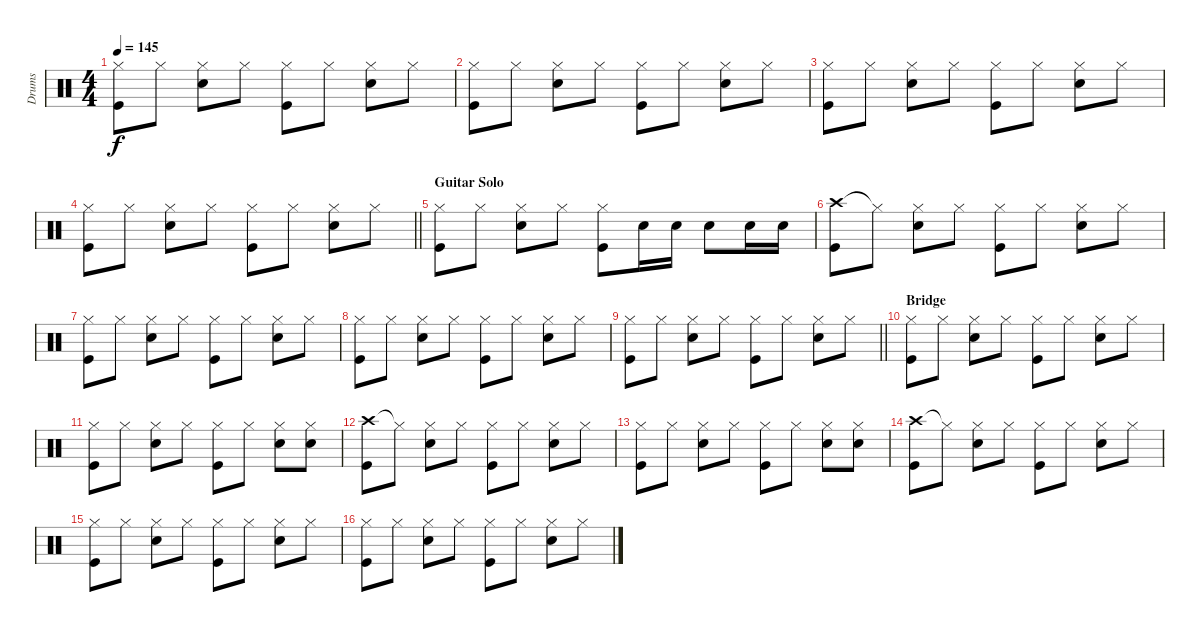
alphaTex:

\track ("Drums" "Drums") {instrument percussion}
\staff {score}
\articulation defaults
\ts (4 4)
\tempo 145
\clef neutral
\ks c
("Hi-Hat (closed)" "Kick (hit)").8{dy f} "Hi-Hat (closed)".8 ("Hi-Hat (closed)" "Electric Snare (hit)").8 "Hi-Hat (closed)".8 ("Hi-Hat (closed)" "Kick (hit)").8 "Hi-Hat (closed)".8 ("Hi-Hat (closed)" "Electric Snare (hit)").8 "Hi-Hat (closed)".8 |
("Hi-Hat (closed)" "Kick (hit)").8 "Hi-Hat (closed)".8 ("Hi-Hat (closed)" "Electric Snare (hit)").8 "Hi-Hat (closed)".8 ("Hi-Hat (closed)" "Kick (hit)").8 "Hi-Hat (closed)".8 ("Hi-Hat (closed)" "Electric Snare (hit)").8 "Hi-Hat (closed)".8 |
("Hi-Hat (closed)" "Kick (hit)").8 "Hi-Hat (closed)".8 ("Hi-Hat (closed)" "Electric Snare (hit)").8 "Hi-Hat (closed)".8 ("Hi-Hat (closed)" "Kick (hit)").8 "Hi-Hat (closed)".8 ("Hi-Hat (closed)" "Electric Snare (hit)").8 "Hi-Hat (closed)".8 |
\barLineRight lightlight
("Hi-Hat (closed)" "Kick (hit)").8 "Hi-Hat (closed)".8 ("Hi-Hat (closed)" "Electric Snare (hit)").8 "Hi-Hat (closed)".8 ("Hi-Hat (closed)" "Kick (hit)").8 "Hi-Hat (closed)".8 ("Hi-Hat (closed)" "Electric Snare (hit)").8 "Hi-Hat (closed)".8 |
\section ("" "Guitar Solo")
("Hi-Hat (closed)" "Kick (hit)").8 "Hi-Hat (closed)".8 ("Hi-Hat (closed)" "Electric Snare (hit)").8 "Hi-Hat (closed)".8 ("Hi-Hat (closed)" "Kick (hit)").8 "Electric Snare (hit)".16 "Electric Snare (hit)".16 "Electric Snare (hit)".8 "Electric Snare (hit)".16 "Electric Snare (hit)".16 |
("Crash high (hit)" "Kick (hit)").8 "Hi-Hat (closed)"{t}.8 ("Hi-Hat (closed)" "Electric Snare (hit)").8 "Hi-Hat (closed)".8 ("Hi-Hat (closed)" "Kick (hit)").8 "Hi-Hat (closed)".8 ("Hi-Hat (closed)" "Electric Snare (hit)").8 "Hi-Hat (closed)".8 |
("Hi-Hat (closed)" "Kick (hit)").8 "Hi-Hat (closed)".8 ("Hi-Hat (closed)" "Electric Snare (hit)").8 "Hi-Hat (closed)".8 ("Hi-Hat (closed)" "Kick (hit)").8 "Hi-Hat (closed)".8 ("Hi-Hat (closed)" "Electric Snare (hit)").8 "Hi-Hat (closed)".8 |
("Hi-Hat (closed)" "Kick (hit)").8 "Hi-Hat (closed)".8 ("Hi-Hat (closed)" "Electric Snare (hit)").8 "Hi-Hat (closed)".8 ("Hi-Hat (closed)" "Kick (hit)").8 "Hi-Hat (closed)".8 ("Hi-Hat (closed)" "Electric Snare (hit)").8 "Hi-Hat (closed)".8 |
\barLineRight lightlight
("Hi-Hat (closed)" "Kick (hit)").8 "Hi-Hat (closed)".8 ("Hi-Hat (closed)" "Electric Snare (hit)").8 "Hi-Hat (closed)".8 ("Hi-Hat (closed)" "Kick (hit)").8 "Hi-Hat (closed)".8 ("Hi-Hat (closed)" "Electric Snare (hit)").8 "Hi-Hat (closed)".8 |
\section ("" "Bridge")
("Hi-Hat (closed)" "Kick (hit)").8 "Hi-Hat (closed)".8 ("Hi-Hat (closed)" "Electric Snare (hit)").8 "Hi-Hat (closed)".8 ("Hi-Hat (closed)" "Kick (hit)").8 "Hi-Hat (closed)".8 ("Hi-Hat (closed)" "Electric Snare (hit)").8 "Hi-Hat (closed)".8 |
("Hi-Hat (closed)" "Kick (hit)").8 "Hi-Hat (closed)".8 ("Hi-Hat (closed)" "Electric Snare (hit)").8 "Hi-Hat (closed)".8 ("Hi-Hat (closed)" "Kick (hit)").8 "Hi-Hat (closed)".8 ("Hi-Hat (closed)" "Electric Snare (hit)").8 ("Hi-Hat (closed)" "Electric Snare (hit)").8 |
("Crash high (hit)" "Kick (hit)").8 "Hi-Hat (closed)"{t}.8 ("Hi-Hat (closed)" "Electric Snare (hit)").8 "Hi-Hat (closed)".8 ("Hi-Hat (closed)" "Kick (hit)").8 "Hi-Hat (closed)".8 ("Hi-Hat (closed)" "Electric Snare (hit)").8 "Hi-Hat (closed)".8 |
("Hi-Hat (closed)" "Kick (hit)").8 "Hi-Hat (closed)".8 ("Hi-Hat (closed)" "Electric Snare (hit)").8 "Hi-Hat (closed)".8 ("Hi-Hat (closed)" "Kick (hit)").8 "Hi-Hat (closed)".8 ("Hi-Hat (closed)" "Electric Snare (hit)").8 ("Hi-Hat (closed)" "Electric Snare (hit)").8 |
("Crash high (hit)" "Kick (hit)").8 "Hi-Hat (closed)"{t}.8 ("Hi-Hat (closed)" "Electric Snare (hit)").8 "Hi-Hat (closed)".8 ("Hi-Hat (closed)" "Kick (hit)").8 "Hi-Hat (closed)".8 ("Hi-Hat (closed)" "Electric Snare (hit)").8 "Hi-Hat (closed)".8 |
("Hi-Hat (closed)" "Kick (hit)").8 "Hi-Hat (closed)".8 ("Hi-Hat (closed)" "Electric Snare (hit)").8 "Hi-Hat (closed)".8 ("Hi-Hat (closed)" "Kick (hit)").8 "Hi-Hat (closed)".8 ("Hi-Hat (closed)" "Electric Snare (hit)").8 "Hi-Hat (closed)".8 |
("Hi-Hat (closed)" "Kick (hit)").8 "Hi-Hat (closed)".8 ("Hi-Hat (closed)" "Electric Snare (hit)").8 "Hi-Hat (closed)".8 ("Hi-Hat (closed)" "Kick (hit)").8 "Hi-Hat (closed)".8 ("Hi-Hat (closed)" "Electric Snare (hit)").8 "Hi-Hat (closed)".8
